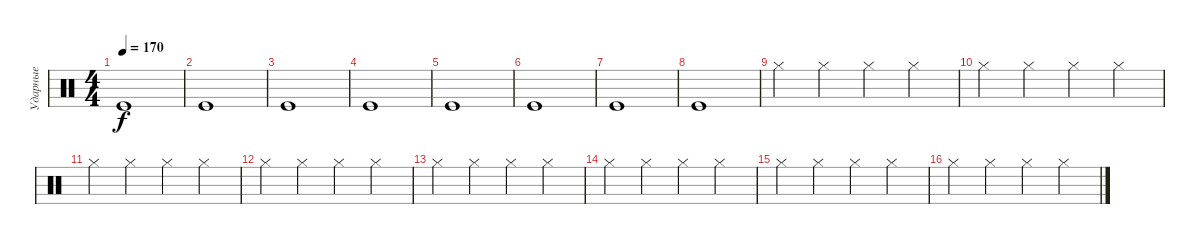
\track ("Ударные" "Ударные") {instrument percussion}
\staff {score}
\articulation defaults
\ts (4 4)
\tempo 170
\clef neutral
\ks c "Kick (hit)".1{dy f}
|
"Kick (hit)".1 |
"Kick (hit)".1 |
"Kick (hit)".1 |
"Kick (hit)".1 |
"Kick (hit)".1 |
"Kick (hit)".1 |
"Kick (hit)".1 |
"Hi-Hat (closed)".4 "Hi-Hat (closed)".4 "Hi-Hat (closed)".4 "Hi-Hat (closed)".4 |
"Hi-Hat (closed)".4 "Hi-Hat (closed)".4 "Hi-Hat (closed)".4 "Hi-Hat (closed)".4 |
"Hi-Hat (closed)".4 "Hi-Hat (closed)".4 "Hi-Hat (closed)".4 "Hi-Hat (closed)".4 |
"Hi-Hat (closed)".4 "Hi-Hat (closed)".4 "Hi-Hat (closed)".4 "Hi-Hat (closed)".4 |
"Hi-Hat (closed)".4 "Hi-Hat (closed)".4 "Hi-Hat (closed)".4 "Hi-Hat (closed)".4 |
"Hi-Hat (closed)".4 "Hi-Hat (closed)".4 "Hi-Hat (closed)".4 "Hi-Hat (closed)".4 |
"Hi-Hat (closed)".4 "Hi-Hat (closed)".4 "Hi-Hat (closed)".4 "Hi-Hat (closed)".4 |
"Hi-Hat (closed)".4 "Hi-Hat (closed)".4 "Hi-Hat (closed)".4 "Hi-Hat (closed)".4
